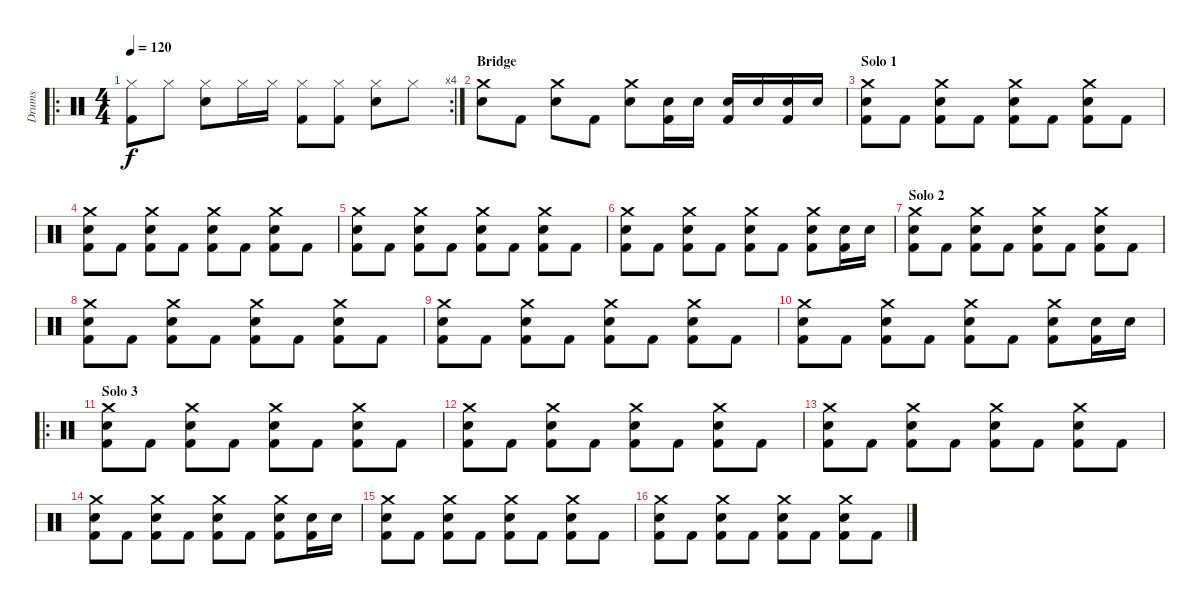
\track ("Drums" "Drums") {instrument percussion}
\staff {score}
\articulation defaults
\ro
\rc 4
\ts (4 4)
\tempo 120
\clef neutral
\ks c
("Hi-Hat (closed)" "Kick (hit) 2").8{dy f} "Hi-Hat (closed)".8 ("Hi-Hat (closed)" "Snare (hit) 2").8 "Hi-Hat (closed)".16 "Hi-Hat (closed)".16 ("Hi-Hat (closed)" "Kick (hit) 2").8 ("Hi-Hat (closed)" "Kick (hit) 2").8 ("Hi-Hat (closed)" "Snare (hit) 2").8 "Hi-Hat (closed)".8 |
\section ("" "Bridge")
("Crash medium (hit)" "Snare (hit) 2").8 "Kick (hit) 2".8 ("Crash medium (hit)" "Snare (hit) 2").8 "Kick (hit) 2".8 ("Crash medium (hit)" "Snare (hit) 2").8 ("Snare (hit) 2" "Kick (hit) 2").16 "Snare (hit) 2".16 ("Snare (hit) 2" "Kick (hit) 2").16 "Snare (hit) 2".16 ("Snare (hit) 2" "Kick (hit) 2").16 "Snare (hit) 2".16 |
\section ("" "Solo 1")
("Crash medium (hit)" "Snare (hit) 2" "Kick (hit) 2").8 "Kick (hit) 2".8 ("Crash medium (hit)" "Snare (hit) 2" "Kick (hit) 2").8 "Kick (hit) 2".8 ("Crash medium (hit)" "Snare (hit) 2" "Kick (hit) 2").8 "Kick (hit) 2".8 ("Crash medium (hit)" "Snare (hit) 2" "Kick (hit) 2").8 "Kick (hit) 2".8 |
("Crash medium (hit)" "Snare (hit) 2" "Kick (hit) 2").8 "Kick (hit) 2".8 ("Crash medium (hit)" "Snare (hit) 2" "Kick (hit) 2").8 "Kick (hit) 2".8 ("Crash medium (hit)" "Snare (hit) 2" "Kick (hit) 2").8 "Kick (hit) 2".8 ("Crash medium (hit)" "Snare (hit) 2" "Kick (hit) 2").8 "Kick (hit) 2".8 |
("Crash medium (hit)" "Snare (hit) 2" "Kick (hit) 2").8 "Kick (hit) 2".8 ("Crash medium (hit)" "Snare (hit) 2" "Kick (hit) 2").8 "Kick (hit) 2".8 ("Crash medium (hit)" "Snare (hit) 2" "Kick (hit) 2").8 "Kick (hit) 2".8 ("Crash medium (hit)" "Snare (hit) 2" "Kick (hit) 2").8 "Kick (hit) 2".8 |
("Crash medium (hit)" "Snare (hit) 2" "Kick (hit) 2").8 "Kick (hit) 2".8 ("Crash medium (hit)" "Snare (hit) 2" "Kick (hit) 2").8 "Kick (hit) 2".8 ("Crash medium (hit)" "Snare (hit) 2" "Kick (hit) 2").8 "Kick (hit) 2".8 ("Crash medium (hit)" "Snare (hit) 2" "Kick (hit) 2").8 ("Snare (hit) 2" "Kick (hit) 2").16 "Snare (hit) 2".16 |
\section ("" "Solo 2")
("Crash medium (hit)" "Snare (hit) 2" "Kick (hit) 2").8 "Kick (hit) 2".8 ("Crash medium (hit)" "Snare (hit) 2" "Kick (hit) 2").8 "Kick (hit) 2".8 ("Crash medium (hit)" "Snare (hit) 2" "Kick (hit) 2").8 "Kick (hit) 2".8 ("Crash medium (hit)" "Snare (hit) 2" "Kick (hit) 2").8 "Kick (hit) 2".8 |
("Crash medium (hit)" "Snare (hit) 2" "Kick (hit) 2").8 "Kick (hit) 2".8 ("Crash medium (hit)" "Snare (hit) 2" "Kick (hit) 2").8 "Kick (hit) 2".8 ("Crash medium (hit)" "Snare (hit) 2" "Kick (hit) 2").8 "Kick (hit) 2".8 ("Crash medium (hit)" "Snare (hit) 2" "Kick (hit) 2").8 "Kick (hit) 2".8 |
("Crash medium (hit)" "Snare (hit) 2" "Kick (hit) 2").8 "Kick (hit) 2".8 ("Crash medium (hit)" "Snare (hit) 2" "Kick (hit) 2").8 "Kick (hit) 2".8 ("Crash medium (hit)" "Snare (hit) 2" "Kick (hit) 2").8 "Kick (hit) 2".8 ("Crash medium (hit)" "Snare (hit) 2" "Kick (hit) 2").8 "Kick (hit) 2".8 |
("Crash medium (hit)" "Snare (hit) 2" "Kick (hit) 2").8 "Kick (hit) 2".8 ("Crash medium (hit)" "Snare (hit) 2" "Kick (hit) 2").8 "Kick (hit) 2".8 ("Crash medium (hit)" "Snare (hit) 2" "Kick (hit) 2").8 "Kick (hit) 2".8 ("Crash medium (hit)" "Snare (hit) 2" "Kick (hit) 2").8 ("Snare (hit) 2" "Kick (hit) 2").16 "Snare (hit) 2".16 |
\ro
\section ("" "Solo 3")
("Crash medium (hit)" "Snare (hit) 2" "Kick (hit) 2").8 "Kick (hit) 2".8 ("Crash medium (hit)" "Snare (hit) 2" "Kick (hit) 2").8 "Kick (hit) 2".8 ("Crash medium (hit)" "Snare (hit) 2" "Kick (hit) 2").8 "Kick (hit) 2".8 ("Crash medium (hit)" "Snare (hit) 2" "Kick (hit) 2").8 "Kick (hit) 2".8 |
("Crash medium (hit)" "Snare (hit) 2" "Kick (hit) 2").8 "Kick (hit) 2".8 ("Crash medium (hit)" "Snare (hit) 2" "Kick (hit) 2").8 "Kick (hit) 2".8 ("Crash medium (hit)" "Snare (hit) 2" "Kick (hit) 2").8 "Kick (hit) 2".8 ("Crash medium (hit)" "Snare (hit) 2" "Kick (hit) 2").8 "Kick (hit) 2".8 |
("Crash medium (hit)" "Snare (hit) 2" "Kick (hit) 2").8 "Kick (hit) 2".8 ("Crash medium (hit)" "Snare (hit) 2" "Kick (hit) 2").8 "Kick (hit) 2".8 ("Crash medium (hit)" "Snare (hit) 2" "Kick (hit) 2").8 "Kick (hit) 2".8 ("Crash medium (hit)" "Snare (hit) 2" "Kick (hit) 2").8 "Kick (hit) 2".8 |
("Crash medium (hit)" "Snare (hit) 2" "Kick (hit) 2").8 "Kick (hit) 2".8 ("Crash medium (hit)" "Snare (hit) 2" "Kick (hit) 2").8 "Kick (hit) 2".8 ("Crash medium (hit)" "Snare (hit) 2" "Kick (hit) 2").8 "Kick (hit) 2".8 ("Crash medium (hit)" "Snare (hit) 2" "Kick (hit) 2").8 ("Snare (hit) 2" "Kick (hit) 2").16 "Snare (hit) 2".16 |
("Crash medium (hit)" "Snare (hit) 2" "Kick (hit) 2").8 "Kick (hit) 2".8 ("Crash medium (hit)" "Snare (hit) 2" "Kick (hit) 2").8 "Kick (hit) 2".8 ("Crash medium (hit)" "Snare (hit) 2" "Kick (hit) 2").8 "Kick (hit) 2".8 ("Crash medium (hit)" "Snare (hit) 2" "Kick (hit) 2").8 "Kick (hit) 2".8 |
("Crash medium (hit)" "Snare (hit) 2" "Kick (hit) 2").8 "Kick (hit) 2".8 ("Crash medium (hit)" "Snare (hit) 2" "Kick (hit) 2").8 "Kick (hit) 2".8 ("Crash medium (hit)" "Snare (hit) 2" "Kick (hit) 2").8 "Kick (hit) 2".8 ("Crash medium (hit)" "Snare (hit) 2" "Kick (hit) 2").8 "Kick (hit) 2".8
